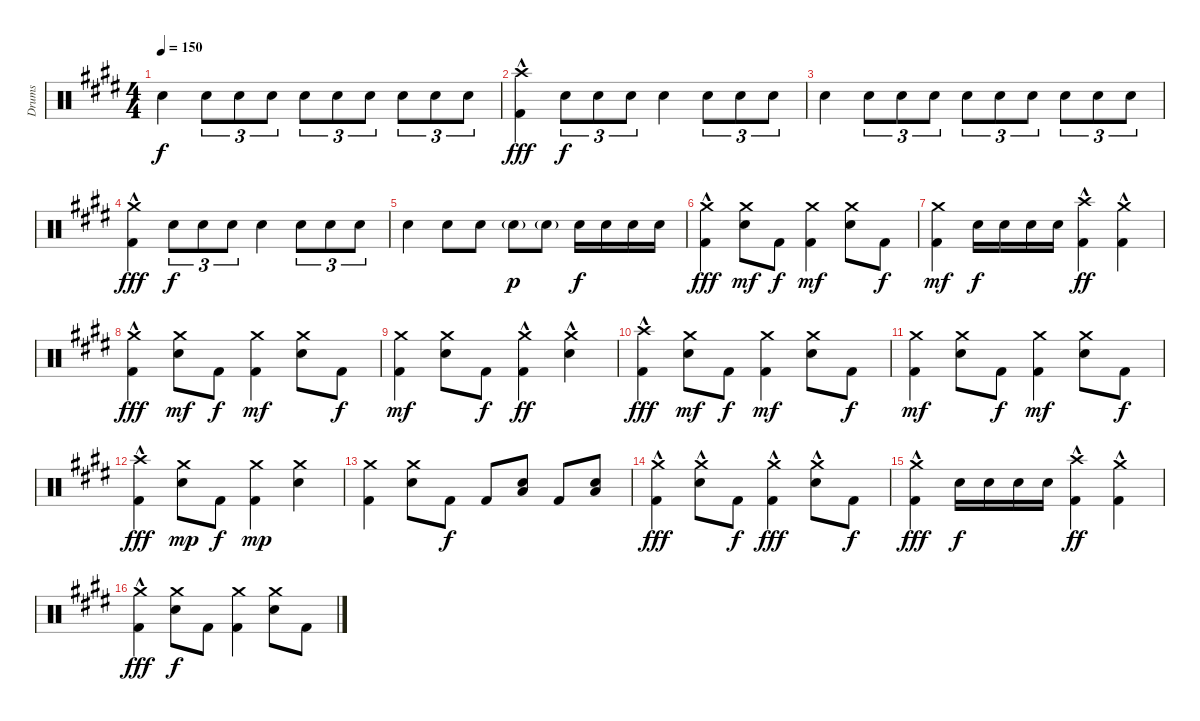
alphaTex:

\track ("Drums" "Drums") {instrument percussion}
\staff {score}
\articulation defaults
\ts (4 4)
\tempo 150
\clef neutral
\ks e "Electric Snare (hit)".4{dy f} "Electric Snare (hit)".8{tu (3 2)} "Electric Snare (hit)".8{tu (3 2)} "Electric Snare (hit)".8{tu (3 2)} "Electric Snare (hit)".8{tu (3 2)} "Electric Snare (hit)".8{tu (3 2)} "Electric Snare (hit)".8{tu (3 2)} "Electric Snare (hit)".8{tu (3 2)} "Electric Snare (hit)".8{tu (3 2)} "Electric Snare (hit)".8{tu (3 2)}
|
("Crash high (hit)"{hac} "Kick (hit) 2").4{dy fff} "Electric Snare (hit)".8{tu (3 2) dy f} "Electric Snare (hit)".8{tu (3 2)} "Electric Snare (hit)".8{tu (3 2)} "Electric Snare (hit)".4 "Electric Snare (hit)".8{tu (3 2)} "Electric Snare (hit)".8{tu (3 2)} "Electric Snare (hit)".8{tu (3 2)} |
"Electric Snare (hit)".4 "Electric Snare (hit)".8{tu (3 2)} "Electric Snare (hit)".8{tu (3 2)} "Electric Snare (hit)".8{tu (3 2)} "Electric Snare (hit)".8{tu (3 2)} "Electric Snare (hit)".8{tu (3 2)} "Electric Snare (hit)".8{tu (3 2)} "Electric Snare (hit)".8{tu (3 2)} "Electric Snare (hit)".8{tu (3 2)} "Electric Snare (hit)".8{tu (3 2)} |
("Crash medium (hit)"{hac} "Kick (hit) 2").4{dy fff} "Electric Snare (hit)".8{tu (3 2) dy f} "Electric Snare (hit)".8{tu (3 2)} "Electric Snare (hit)".8{tu (3 2)} "Electric Snare (hit)".4 "Electric Snare (hit)".8{tu (3 2)} "Electric Snare (hit)".8{tu (3 2)} "Electric Snare (hit)".8{tu (3 2)} |
"Electric Snare (hit)".4 "Electric Snare (hit)".8 "Electric Snare (hit)".8 "Electric Snare (hit)"{g}.8{dy p} "Electric Snare (hit)"{g}.8 "Electric Snare (hit)".16{dy f} "Electric Snare (hit)".16 "Electric Snare (hit)".16 "Electric Snare (hit)".16 |
("Crash medium (hit)"{hac} "Kick (hit) 2").4{dy fff} ("Crash medium (hit)" "Electric Snare (hit)").8{dy mf} "Kick (hit) 2".8{dy f} ("Crash medium (hit)" "Kick (hit) 2").4{dy mf} ("Crash medium (hit)" "Electric Snare (hit)").8 "Kick (hit) 2".8{dy f} |
("Crash medium (hit)" "Kick (hit) 2").4{dy mf} "Electric Snare (hit)".16{dy f} "Electric Snare (hit)".16 "Electric Snare (hit)".16 "Electric Snare (hit)".16 ("Crash high (hit)"{hac} "Kick (hit) 2").4{dy ff} ("Crash medium (hit)"{hac} "Kick (hit) 2").4 |
("Crash medium (hit)"{hac} "Kick (hit) 2").4{dy fff} ("Crash medium (hit)" "Electric Snare (hit)").8{dy mf} "Kick (hit) 2".8{dy f} ("Crash medium (hit)" "Kick (hit) 2").4{dy mf} ("Crash medium (hit)" "Electric Snare (hit)").8 "Kick (hit) 2".8{dy f} |
("Crash medium (hit)" "Kick (hit) 2").4{dy mf} ("Crash medium (hit)" "Electric Snare (hit)").8 "Kick (hit) 2".8{dy f} ("Crash medium (hit)"{hac} "Kick (hit) 2").4{dy ff} ("Crash medium (hit)"{hac} "Electric Snare (hit)").4 |
("Crash high (hit)"{hac} "Kick (hit) 2").4{dy fff} ("Crash medium (hit)" "Electric Snare (hit)").8{dy mf} "Kick (hit) 2".8{dy f} ("Crash medium (hit)" "Kick (hit) 2").4{dy mf} ("Crash medium (hit)" "Electric Snare (hit)").8 "Kick (hit) 2".8{dy f} |
("Crash medium (hit)" "Kick (hit) 2").4{dy mf} ("Crash medium (hit)" "Electric Snare (hit)").8 "Kick (hit) 2".8{dy f} ("Crash medium (hit)" "Kick (hit) 2").4{dy mf} ("Crash medium (hit)" "Electric Snare (hit)").8 "Kick (hit) 2".8{dy f} |
("Crash high (hit)"{hac} "Kick (hit) 2").4{dy fff} ("Crash medium (hit)" "Electric Snare (hit)").8{dy mp} "Kick (hit) 2".8{dy f} ("Crash medium (hit)" "Kick (hit) 2").4{dy mp} ("Crash medium (hit)" "Electric Snare (hit)").4 |
("Crash medium (hit)" "Kick (hit) 2").4 ("Crash medium (hit)" "Electric Snare (hit)").8 "Kick (hit) 2".8{dy f} "Kick (hit) 2".8 ("Electric Snare (hit)" "Low Floor Tom (hit)").8 "Kick (hit) 2".8 ("Electric Snare (hit)" "Low Floor Tom (hit)").8 |
("Crash medium (hit)"{hac} "Kick (hit) 2").4{dy fff} ("Crash medium (hit)"{hac} "Electric Snare (hit)").8 "Kick (hit) 2".8{dy f} ("Crash medium (hit)"{hac} "Kick (hit) 2").4{dy fff} ("Crash medium (hit)"{hac} "Electric Snare (hit)").8 "Kick (hit) 2".8{dy f} |
("Crash medium (hit)"{hac} "Kick (hit) 2").4{dy fff} "Electric Snare (hit)".16{dy f} "Electric Snare (hit)".16 "Electric Snare (hit)".16 "Electric Snare (hit)".16 ("Crash high (hit)"{hac} "Kick (hit) 2").4{dy ff} ("Crash medium (hit)"{hac} "Kick (hit) 2").4 |
("Crash medium (hit)"{hac} "Kick (hit) 2").4{dy fff} ("Crash medium (hit)" "Electric Snare (hit)").8{dy f} "Kick (hit) 2".8 ("Crash medium (hit)" "Kick (hit) 2").4 ("Crash medium (hit)" "Electric Snare (hit)").8 "Kick (hit) 2".8
